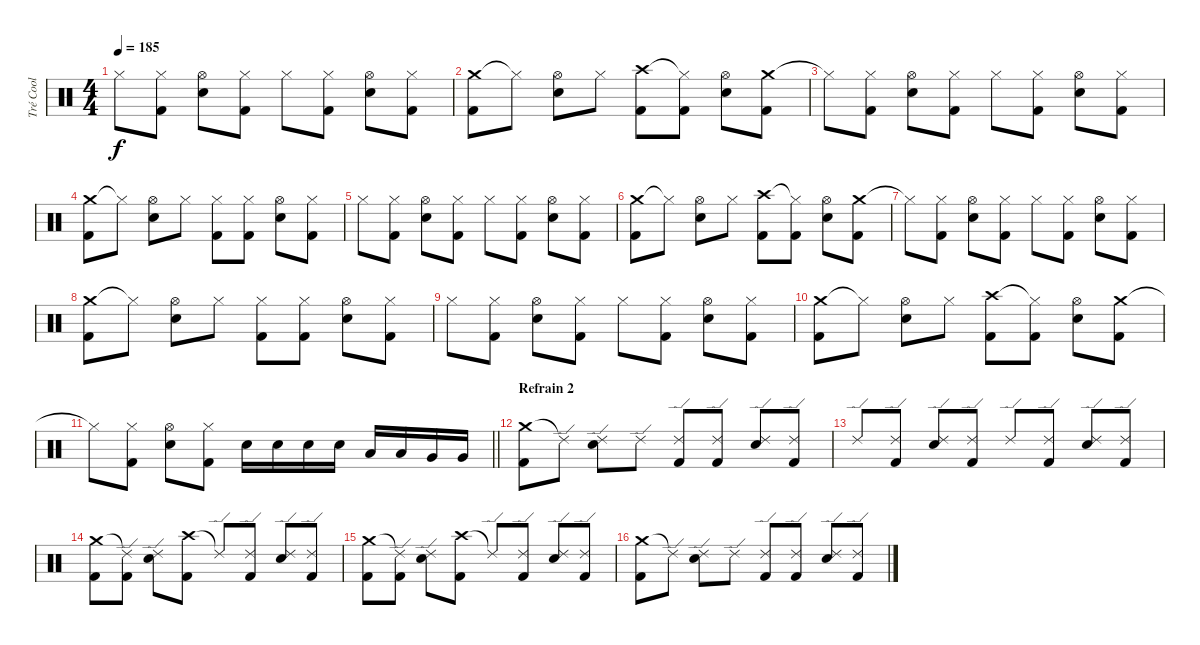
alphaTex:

\track ("Tré Cool" "Tré Cool") {instrument percussion}
\staff {score}
\articulation defaults
\ts (4 4)
\tempo 185
\clef neutral
\ks c "Hi-Hat (closed)".8{dy f}
("Hi-Hat (closed)" "Kick (hit) 2").8 ("Hi-Hat (open)" "Electric Snare (hit)").8 ("Hi-Hat (closed)" "Kick (hit) 2").8 "Hi-Hat (closed)".8 ("Hi-Hat (closed)" "Kick (hit) 2").8 ("Hi-Hat (open)" "Electric Snare (hit)").8 ("Hi-Hat (closed)" "Kick (hit) 2").8 |
("Crash medium (hit)" "Kick (hit) 2").8 "Hi-Hat (closed)"{t}.8 ("Hi-Hat (open)" "Electric Snare (hit)").8 "Hi-Hat (closed)".8 ("Crash high (hit)" "Kick (hit) 2").8 ("Hi-Hat (closed)"{t} "Kick (hit) 2").8 ("Hi-Hat (open)" "Electric Snare (hit)").8 ("Crash medium (hit)" "Kick (hit) 2").8 |
"Hi-Hat (closed)"{t}.8 ("Hi-Hat (closed)" "Kick (hit) 2").8 ("Hi-Hat (open)" "Electric Snare (hit)").8 ("Hi-Hat (closed)" "Kick (hit) 2").8 "Hi-Hat (closed)".8 ("Hi-Hat (closed)" "Kick (hit) 2").8 ("Hi-Hat (open)" "Electric Snare (hit)").8 ("Hi-Hat (closed)" "Kick (hit) 2").8 |
("Crash medium (hit)" "Kick (hit) 2").8 "Hi-Hat (closed)"{t}.8 ("Hi-Hat (open)" "Electric Snare (hit)").8 "Hi-Hat (closed)".8 ("Hi-Hat (closed)" "Kick (hit) 2").8 ("Hi-Hat (closed)" "Kick (hit) 2").8 ("Hi-Hat (open)" "Electric Snare (hit)").8 ("Hi-Hat (closed)" "Kick (hit) 2").8 |
"Hi-Hat (closed)".8 ("Hi-Hat (closed)" "Kick (hit) 2").8 ("Hi-Hat (open)" "Electric Snare (hit)").8 ("Hi-Hat (closed)" "Kick (hit) 2").8 "Hi-Hat (closed)".8 ("Hi-Hat (closed)" "Kick (hit) 2").8 ("Hi-Hat (open)" "Electric Snare (hit)").8 ("Hi-Hat (closed)" "Kick (hit) 2").8 |
("Crash medium (hit)" "Kick (hit) 2").8 "Hi-Hat (closed)"{t}.8 ("Hi-Hat (open)" "Electric Snare (hit)").8 "Hi-Hat (closed)".8 ("Crash high (hit)" "Kick (hit) 2").8 ("Hi-Hat (closed)"{t} "Kick (hit) 2").8 ("Hi-Hat (open)" "Electric Snare (hit)").8 ("Crash medium (hit)" "Kick (hit) 2").8 |
"Hi-Hat (closed)"{t}.8 ("Hi-Hat (closed)" "Kick (hit) 2").8 ("Hi-Hat (open)" "Electric Snare (hit)").8 ("Hi-Hat (closed)" "Kick (hit) 2").8 "Hi-Hat (closed)".8 ("Hi-Hat (closed)" "Kick (hit) 2").8 ("Hi-Hat (open)" "Electric Snare (hit)").8 ("Hi-Hat (closed)" "Kick (hit) 2").8 |
("Crash medium (hit)" "Kick (hit) 2").8 "Hi-Hat (closed)"{t}.8 ("Hi-Hat (open)" "Electric Snare (hit)").8 "Hi-Hat (closed)".8 ("Hi-Hat (closed)" "Kick (hit) 2").8 ("Hi-Hat (closed)" "Kick (hit) 2").8 ("Hi-Hat (open)" "Electric Snare (hit)").8 ("Hi-Hat (closed)" "Kick (hit) 2").8 |
"Hi-Hat (closed)".8 ("Hi-Hat (closed)" "Kick (hit) 2").8 ("Hi-Hat (open)" "Electric Snare (hit)").8 ("Hi-Hat (closed)" "Kick (hit) 2").8 "Hi-Hat (closed)".8 ("Hi-Hat (closed)" "Kick (hit) 2").8 ("Hi-Hat (open)" "Electric Snare (hit)").8 ("Hi-Hat (closed)" "Kick (hit) 2").8 |
("Crash medium (hit)" "Kick (hit) 2").8 "Hi-Hat (closed)"{t}.8 ("Hi-Hat (open)" "Electric Snare (hit)").8 "Hi-Hat (closed)".8 ("Crash high (hit)" "Kick (hit) 2").8 ("Hi-Hat (closed)"{t} "Kick (hit) 2").8 ("Hi-Hat (open)" "Electric Snare (hit)").8 ("Crash medium (hit)" "Kick (hit) 2").8 |
\barLineRight lightlight "Hi-Hat (closed)"{t}.8
("Hi-Hat (closed)" "Kick (hit) 2").8 ("Hi-Hat (open)" "Electric Snare (hit)").8 ("Hi-Hat (closed)" "Kick (hit) 2").8 "Electric Snare (hit)".16 "Electric Snare (hit)".16 "Electric Snare (hit)".16 "Electric Snare (hit)".16 "Low Tom (hit)".16 "Low Tom (hit)".16 "Very Low Tom (hit)".16 "Very Low Tom (hit)".16 |
\section ("" "Refrain 2")
("Crash medium (hit)" "Kick (hit) 2").8 "Ride (edge) 2"{t}.8 ("Ride (edge) 2" "Electric Snare (hit)").8 "Ride (edge) 2".8 ("Ride (edge) 2" "Kick (hit) 2").8 ("Ride (edge) 2" "Kick (hit) 2").8 ("Ride (edge) 2" "Electric Snare (hit)").8 ("Ride (edge) 2" "Kick (hit) 2").8 |
"Ride (edge) 2".8 ("Ride (edge) 2" "Kick (hit) 2").8 ("Ride (edge) 2" "Electric Snare (hit)").8 ("Ride (edge) 2" "Kick (hit) 2").8 "Ride (edge) 2".8 ("Ride (edge) 2" "Kick (hit) 2").8 ("Ride (edge) 2" "Electric Snare (hit)").8 ("Ride (edge) 2" "Kick (hit) 2").8 |
("Crash medium (hit)" "Kick (hit) 2").8 ("Ride (edge) 2"{t} "Kick (hit) 2").8 ("Ride (edge) 2" "Electric Snare (hit)").8 ("Crash high (hit)" "Kick (hit) 2").8 "Ride (edge) 2"{t}.8 ("Ride (edge) 2" "Kick (hit) 2").8 ("Ride (edge) 2" "Electric Snare (hit)").8 ("Ride (edge) 2" "Kick (hit) 2").8 |
("Crash medium (hit)" "Kick (hit) 2").8 ("Ride (edge) 2"{t} "Kick (hit) 2").8 ("Ride (edge) 2" "Electric Snare (hit)").8 ("Crash high (hit)" "Kick (hit) 2").8 "Ride (edge) 2"{t}.8 ("Ride (edge) 2" "Kick (hit) 2").8 ("Ride (edge) 2" "Electric Snare (hit)").8 ("Ride (edge) 2" "Kick (hit) 2").8 |
("Crash medium (hit)" "Kick (hit) 2").8 "Ride (edge) 2"{t}.8 ("Ride (edge) 2" "Electric Snare (hit)").8 "Ride (edge) 2".8 ("Ride (edge) 2" "Kick (hit) 2").8 ("Ride (edge) 2" "Kick (hit) 2").8 ("Ride (edge) 2" "Electric Snare (hit)").8 ("Ride (edge) 2" "Kick (hit) 2").8
